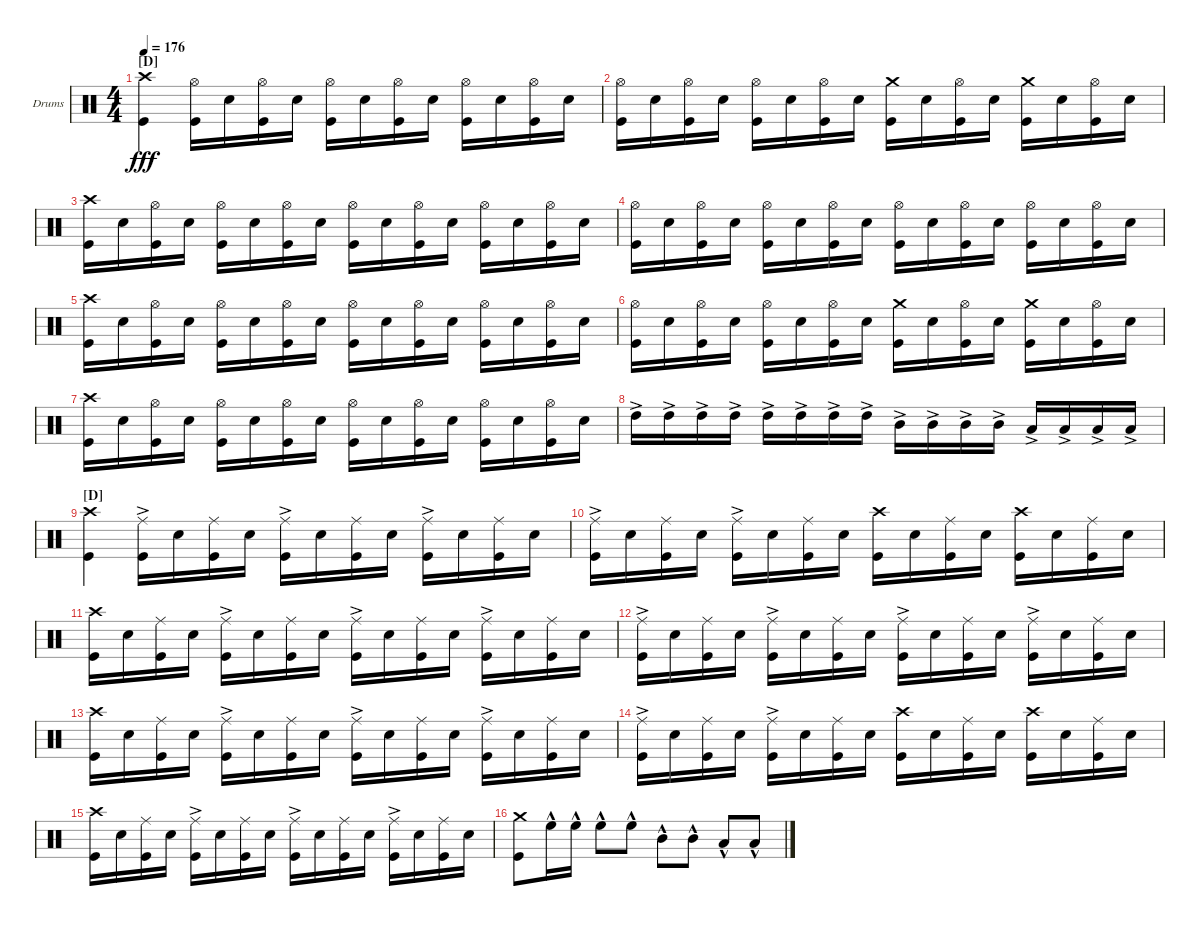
\defaultSystemsLayout 4
\bracketExtendMode groupsimilarinstruments
\firstSystemTrackNameOrientation horizontal
\otherSystemsTrackNameOrientation horizontal
\track ("Drums" "Drums") {instrument percussion}
\staff {score}
\articulation defaults
\ts (4 4)
\section ("D" "")
\tempo 176
\clef neutral
\ks c
("Crash high (hit)" "Kick (hit)").4{dy fff} ("Kick (hit)" "Hi-Hat (open)").16 "Snare (hit) 2".16 ("Kick (hit)" "Hi-Hat (open)").16 "Snare (hit) 2".16 ("Kick (hit)" "Hi-Hat (open)").16 "Snare (hit) 2".16 ("Kick (hit)" "Hi-Hat (open)").16 "Snare (hit) 2".16 ("Kick (hit)" "Hi-Hat (open)").16 "Snare (hit) 2".16 ("Kick (hit)" "Hi-Hat (open)").16 "Snare (hit) 2".16 |
("Kick (hit)" "Hi-Hat (open)").16 "Snare (hit) 2".16 ("Kick (hit)" "Hi-Hat (open)").16 "Snare (hit) 2".16 ("Kick (hit)" "Hi-Hat (open)").16 "Snare (hit) 2".16 ("Kick (hit)" "Hi-Hat (open)").16 "Snare (hit) 2".16 ("Kick (hit)" "Crash medium (hit)").16 "Snare (hit) 2".16 ("Kick (hit)" "Hi-Hat (open)").16 "Snare (hit) 2".16 ("Kick (hit)" "Crash medium (hit)").16 "Snare (hit) 2".16 ("Kick (hit)" "Hi-Hat (open)").16 "Snare (hit) 2".16 |
("Kick (hit)" "Crash high (hit)").16 "Snare (hit) 2".16 ("Kick (hit)" "Hi-Hat (open)").16 "Snare (hit) 2".16 ("Kick (hit)" "Hi-Hat (open)").16 "Snare (hit) 2".16 ("Kick (hit)" "Hi-Hat (open)").16 "Snare (hit) 2".16 ("Kick (hit)" "Hi-Hat (open)").16 "Snare (hit) 2".16 ("Kick (hit)" "Hi-Hat (open)").16 "Snare (hit) 2".16 ("Kick (hit)" "Hi-Hat (open)").16 "Snare (hit) 2".16 ("Kick (hit)" "Hi-Hat (open)").16 "Snare (hit) 2".16 |
("Kick (hit)" "Hi-Hat (open)").16 "Snare (hit) 2".16 ("Kick (hit)" "Hi-Hat (open)").16 "Snare (hit) 2".16 ("Kick (hit)" "Hi-Hat (open)").16 "Snare (hit) 2".16 ("Kick (hit)" "Hi-Hat (open)").16 "Snare (hit) 2".16 ("Kick (hit)" "Hi-Hat (open)").16 "Snare (hit) 2".16 ("Kick (hit)" "Hi-Hat (open)").16 "Snare (hit) 2".16 ("Kick (hit)" "Hi-Hat (open)").16 "Snare (hit) 2".16 ("Kick (hit)" "Hi-Hat (open)").16 "Snare (hit) 2".16 |
("Kick (hit)" "Crash high (hit)").16 "Snare (hit) 2".16 ("Kick (hit)" "Hi-Hat (open)").16 "Snare (hit) 2".16 ("Kick (hit)" "Hi-Hat (open)").16 "Snare (hit) 2".16 ("Kick (hit)" "Hi-Hat (open)").16 "Snare (hit) 2".16 ("Kick (hit)" "Hi-Hat (open)").16 "Snare (hit) 2".16 ("Kick (hit)" "Hi-Hat (open)").16 "Snare (hit) 2".16 ("Kick (hit)" "Hi-Hat (open)").16 "Snare (hit) 2".16 ("Kick (hit)" "Hi-Hat (open)").16 "Snare (hit) 2".16 |
("Kick (hit)" "Hi-Hat (open)").16 "Snare (hit) 2".16 ("Kick (hit)" "Hi-Hat (open)").16 "Snare (hit) 2".16 ("Kick (hit)" "Hi-Hat (open)").16 "Snare (hit) 2".16 ("Kick (hit)" "Hi-Hat (open)").16 "Snare (hit) 2".16 ("Kick (hit)" "Crash medium (hit)").16 "Snare (hit) 2".16 ("Kick (hit)" "Hi-Hat (open)").16 "Snare (hit) 2".16 ("Kick (hit)" "Crash medium (hit)").16 "Snare (hit) 2".16 ("Kick (hit)" "Hi-Hat (open)").16 "Snare (hit) 2".16 |
("Kick (hit)" "Crash high (hit)").16 "Snare (hit) 2".16 ("Kick (hit)" "Hi-Hat (open)").16 "Snare (hit) 2".16 ("Kick (hit)" "Hi-Hat (open)").16 "Snare (hit) 2".16 ("Kick (hit)" "Hi-Hat (open)").16 "Snare (hit) 2".16 ("Kick (hit)" "Hi-Hat (open)").16 "Snare (hit) 2".16 ("Kick (hit)" "Hi-Hat (open)").16 "Snare (hit) 2".16 ("Kick (hit)" "Hi-Hat (open)").16 "Snare (hit) 2".16 ("Kick (hit)" "Hi-Hat (open)").16 "Snare (hit) 2".16 |
"High Tom (hit)"{ac}.16 "High Tom (hit)"{ac}.16 "High Tom (hit)"{ac}.16 "High Tom (hit)"{ac}.16 "High Tom (hit)"{ac}.16 "High Tom (hit)"{ac}.16 "High Tom (hit)"{ac}.16 "High Tom (hit)"{ac}.16 "Mid Tom (hit)"{ac}.16 "Mid Tom (hit)"{ac}.16 "Mid Tom (hit)"{ac}.16 "Mid Tom (hit)"{ac}.16 "Low Tom (hit)"{ac}.16 "Low Tom (hit)"{ac}.16 "Low Tom (hit)"{ac}.16 "Low Tom (hit)"{ac}.16 |
\section ("D" "")
("Crash high (hit)" "Kick (hit)").4 ("Kick (hit)" "Ride (middle)"{ac}).16 "Snare (hit) 2".16 ("Kick (hit)" "Ride (middle)").16 "Snare (hit) 2".16 ("Kick (hit)" "Ride (middle)"{ac}).16 "Snare (hit) 2".16 ("Kick (hit)" "Ride (middle)").16 "Snare (hit) 2".16 ("Kick (hit)" "Ride (middle)"{ac}).16 "Snare (hit) 2".16 ("Kick (hit)" "Ride (middle)").16 "Snare (hit) 2".16 |
("Kick (hit)" "Ride (middle)"{ac}).16 "Snare (hit) 2".16 ("Kick (hit)" "Ride (middle)").16 "Snare (hit) 2".16 ("Kick (hit)" "Ride (middle)"{ac}).16 "Snare (hit) 2".16 ("Kick (hit)" "Ride (middle)").16 "Snare (hit) 2".16 ("Kick (hit)" "Crash high (hit)").16 "Snare (hit) 2".16 ("Kick (hit)" "Ride (middle)").16 "Snare (hit) 2".16 ("Kick (hit)" "Crash high (hit)").16 "Snare (hit) 2".16 ("Kick (hit)" "Ride (middle)").16 "Snare (hit) 2".16 |
("Kick (hit)" "Crash high (hit)").16 "Snare (hit) 2".16 ("Kick (hit)" "Ride (middle)").16 "Snare (hit) 2".16 ("Kick (hit)" "Ride (middle)"{ac}).16 "Snare (hit) 2".16 ("Kick (hit)" "Ride (middle)").16 "Snare (hit) 2".16 ("Kick (hit)" "Ride (middle)"{ac}).16 "Snare (hit) 2".16 ("Kick (hit)" "Ride (middle)").16 "Snare (hit) 2".16 ("Kick (hit)" "Ride (middle)"{ac}).16 "Snare (hit) 2".16 ("Kick (hit)" "Ride (middle)").16 "Snare (hit) 2".16 |
("Kick (hit)" "Ride (middle)"{ac}).16 "Snare (hit) 2".16 ("Kick (hit)" "Ride (middle)").16 "Snare (hit) 2".16 ("Kick (hit)" "Ride (middle)"{ac}).16 "Snare (hit) 2".16 ("Kick (hit)" "Ride (middle)").16 "Snare (hit) 2".16 ("Kick (hit)" "Ride (middle)"{ac}).16 "Snare (hit) 2".16 ("Kick (hit)" "Ride (middle)").16 "Snare (hit) 2".16 ("Kick (hit)" "Ride (middle)"{ac}).16 "Snare (hit) 2".16 ("Kick (hit)" "Ride (middle)").16 "Snare (hit) 2".16 |
("Kick (hit)" "Crash high (hit)").16 "Snare (hit) 2".16 ("Kick (hit)" "Ride (middle)").16 "Snare (hit) 2".16 ("Kick (hit)" "Ride (middle)"{ac}).16 "Snare (hit) 2".16 ("Kick (hit)" "Ride (middle)").16 "Snare (hit) 2".16 ("Kick (hit)" "Ride (middle)"{ac}).16 "Snare (hit) 2".16 ("Kick (hit)" "Ride (middle)").16 "Snare (hit) 2".16 ("Kick (hit)" "Ride (middle)"{ac}).16 "Snare (hit) 2".16 ("Kick (hit)" "Ride (middle)").16 "Snare (hit) 2".16 |
("Kick (hit)" "Ride (middle)"{ac}).16 "Snare (hit) 2".16 ("Kick (hit)" "Ride (middle)").16 "Snare (hit) 2".16 ("Kick (hit)" "Ride (middle)"{ac}).16 "Snare (hit) 2".16 ("Kick (hit)" "Ride (middle)").16 "Snare (hit) 2".16 ("Kick (hit)" "Crash high (hit)").16 "Snare (hit) 2".16 ("Kick (hit)" "Ride (middle)").16 "Snare (hit) 2".16 ("Kick (hit)" "Crash high (hit)").16 "Snare (hit) 2".16 ("Kick (hit)" "Ride (middle)").16 "Snare (hit) 2".16 |
("Kick (hit)" "Crash high (hit)").16 "Snare (hit) 2".16 ("Kick (hit)" "Ride (middle)").16 "Snare (hit) 2".16 ("Kick (hit)" "Ride (middle)"{ac}).16 "Snare (hit) 2".16 ("Kick (hit)" "Ride (middle)").16 "Snare (hit) 2".16 ("Kick (hit)" "Ride (middle)"{ac}).16 "Snare (hit) 2".16 ("Kick (hit)" "Ride (middle)").16 "Snare (hit) 2".16 ("Kick (hit)" "Ride (middle)"{ac}).16 "Snare (hit) 2".16 ("Kick (hit)" "Ride (middle)").16 "Snare (hit) 2".16 |
("Kick (hit)" "Crash medium (hit)").8 "High Floor Tom (hit)"{hac}.16 "High Floor Tom (hit)"{hac}.16 "High Floor Tom (hit)"{hac}.8 "High Floor Tom (hit)"{hac}.8 "Mid Tom (hit)"{hac}.8 "Mid Tom (hit)"{hac}.8 "Low Tom (hit)"{hac}.8 "Low Tom (hit)"{hac}.8
